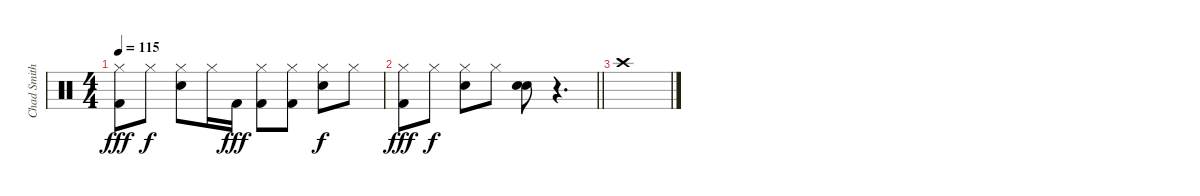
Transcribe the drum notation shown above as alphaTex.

\track ("Chad Smith - Drums" "Chad Smith") {instrument percussion}
\staff {score}
\articulation defaults
\ts (4 4)
\tempo 115
\clef neutral
\ks c
("Hi-Hat (closed)" "Kick (hit) 2").8{dy fff} "Hi-Hat (closed)".8{dy f} ("Hi-Hat (closed)" "Electric Snare (hit)").8 "Hi-Hat (closed)".16 "Kick (hit) 2".16{dy fff} ("Hi-Hat (closed)" "Kick (hit) 2").8 ("Hi-Hat (closed)" "Kick (hit) 2").8 ("Hi-Hat (closed)" "Electric Snare (hit)").8{dy f} "Hi-Hat (closed)".8 |
\barLineRight lightlight
("Hi-Hat (closed)" "Kick (hit) 2").8{dy fff} "Hi-Hat (closed)".8{dy f} ("Hi-Hat (closed)" "Electric Snare (hit)").8 "Hi-Hat (closed)".8 ("Electric Snare (hit)" "Electric Snare (hit)").8 r.4{d} |
"Crash high (hit)".1
